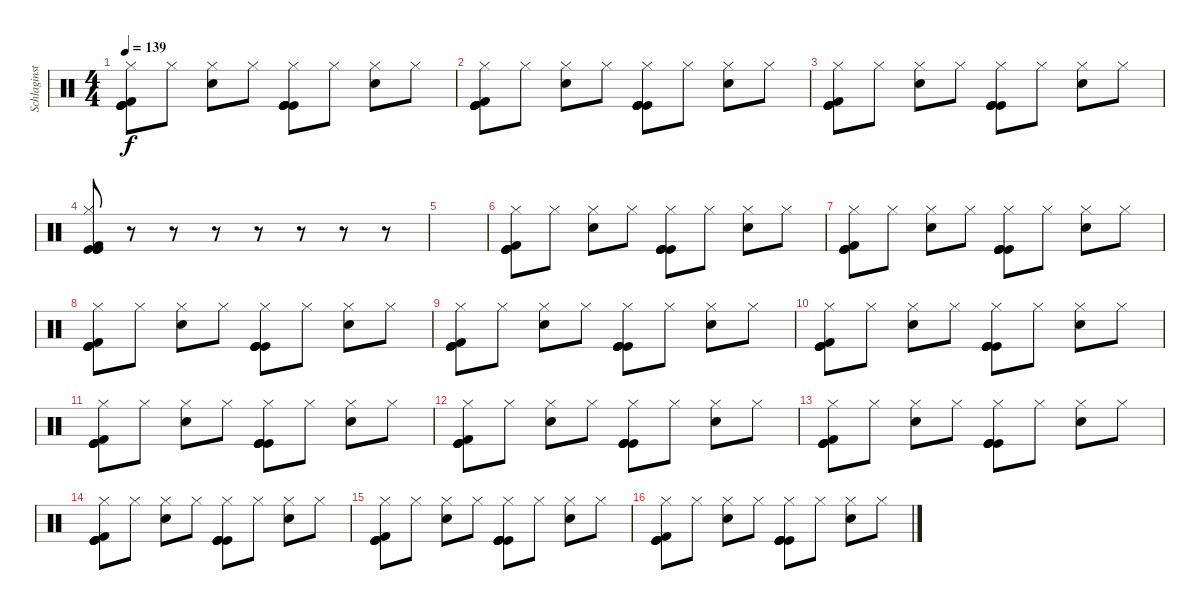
\track ("Schlaginstrumente - Auswahl" "Schlaginst") {instrument percussion}
\staff {score}
\articulation defaults
\ts (4 4)
\tempo 139
\clef neutral
\ks c
("Kick (hit)" "Kick (hit)" "Kick (hit)" "Hi-Hat (closed)" "Kick (hit) 2").8{dy f} "Hi-Hat (closed)".8 ("Hi-Hat (closed)" "Snare (hit) 2").8 "Hi-Hat (closed)".8 ("Kick (hit)" "Kick (hit)" "Kick (hit)" "Hi-Hat (closed)" "Kick (hit)").8 "Hi-Hat (closed)".8 ("Hi-Hat (closed)" "Snare (hit) 2").8 "Hi-Hat (closed)".8 |
("Kick (hit)" "Kick (hit)" "Kick (hit)" "Hi-Hat (closed)" "Kick (hit) 2").8 "Hi-Hat (closed)".8 ("Hi-Hat (closed)" "Snare (hit) 2").8 "Hi-Hat (closed)".8 ("Kick (hit)" "Kick (hit)" "Kick (hit)" "Hi-Hat (closed)" "Kick (hit)").8 "Hi-Hat (closed)".8 ("Hi-Hat (closed)" "Snare (hit) 2").8 "Hi-Hat (closed)".8 |
("Kick (hit)" "Kick (hit)" "Kick (hit)" "Hi-Hat (closed)" "Kick (hit) 2").8 "Hi-Hat (closed)".8 ("Hi-Hat (closed)" "Snare (hit) 2").8 "Hi-Hat (closed)".8 ("Kick (hit)" "Kick (hit)" "Kick (hit)" "Hi-Hat (closed)" "Kick (hit)").8 "Hi-Hat (closed)".8 ("Hi-Hat (closed)" "Snare (hit) 2").8 "Hi-Hat (closed)".8 |
("Kick (hit)" "Kick (hit)" "Kick (hit)" "Hi-Hat (closed)" "Kick (hit) 2").8 r.8 r.8 r.8 r.8 r.8 r.8 r.8 |
|
("Kick (hit)" "Kick (hit)" "Kick (hit)" "Hi-Hat (closed)" "Kick (hit) 2").8 "Hi-Hat (closed)".8 ("Hi-Hat (closed)" "Snare (hit) 2").8 "Hi-Hat (closed)".8 ("Kick (hit)" "Kick (hit)" "Kick (hit)" "Hi-Hat (closed)" "Kick (hit)").8 "Hi-Hat (closed)".8 ("Hi-Hat (closed)" "Snare (hit) 2").8 "Hi-Hat (closed)".8 |
("Kick (hit)" "Kick (hit)" "Kick (hit)" "Hi-Hat (closed)" "Kick (hit) 2").8 "Hi-Hat (closed)".8 ("Hi-Hat (closed)" "Snare (hit) 2").8 "Hi-Hat (closed)".8 ("Kick (hit)" "Kick (hit)" "Kick (hit)" "Hi-Hat (closed)" "Kick (hit)").8 "Hi-Hat (closed)".8 ("Hi-Hat (closed)" "Snare (hit) 2").8 "Hi-Hat (closed)".8 |
("Kick (hit)" "Kick (hit)" "Kick (hit)" "Hi-Hat (closed)" "Kick (hit) 2").8 "Hi-Hat (closed)".8 ("Hi-Hat (closed)" "Snare (hit) 2").8 "Hi-Hat (closed)".8 ("Kick (hit)" "Kick (hit)" "Kick (hit)" "Hi-Hat (closed)" "Kick (hit)").8 "Hi-Hat (closed)".8 ("Hi-Hat (closed)" "Snare (hit) 2").8 "Hi-Hat (closed)".8 |
("Kick (hit)" "Kick (hit)" "Kick (hit)" "Hi-Hat (closed)" "Kick (hit) 2").8 "Hi-Hat (closed)".8 ("Hi-Hat (closed)" "Snare (hit) 2").8 "Hi-Hat (closed)".8 ("Kick (hit)" "Kick (hit)" "Kick (hit)" "Hi-Hat (closed)" "Kick (hit)").8 "Hi-Hat (closed)".8 ("Hi-Hat (closed)" "Snare (hit) 2").8 "Hi-Hat (closed)".8 |
("Kick (hit)" "Kick (hit)" "Kick (hit)" "Hi-Hat (closed)" "Kick (hit) 2").8 "Hi-Hat (closed)".8 ("Hi-Hat (closed)" "Snare (hit) 2").8 "Hi-Hat (closed)".8 ("Kick (hit)" "Kick (hit)" "Kick (hit)" "Hi-Hat (closed)" "Kick (hit)").8 "Hi-Hat (closed)".8 ("Hi-Hat (closed)" "Snare (hit) 2").8 "Hi-Hat (closed)".8 |
("Kick (hit)" "Kick (hit)" "Kick (hit)" "Hi-Hat (closed)" "Kick (hit) 2").8 "Hi-Hat (closed)".8 ("Hi-Hat (closed)" "Snare (hit) 2").8 "Hi-Hat (closed)".8 ("Kick (hit)" "Kick (hit)" "Kick (hit)" "Hi-Hat (closed)" "Kick (hit)").8 "Hi-Hat (closed)".8 ("Hi-Hat (closed)" "Snare (hit) 2").8 "Hi-Hat (closed)".8 |
("Kick (hit)" "Kick (hit)" "Kick (hit)" "Hi-Hat (closed)" "Kick (hit) 2").8 "Hi-Hat (closed)".8 ("Hi-Hat (closed)" "Snare (hit) 2").8 "Hi-Hat (closed)".8 ("Kick (hit)" "Kick (hit)" "Kick (hit)" "Hi-Hat (closed)" "Kick (hit)").8 "Hi-Hat (closed)".8 ("Hi-Hat (closed)" "Snare (hit) 2").8 "Hi-Hat (closed)".8 |
("Kick (hit)" "Kick (hit)" "Kick (hit)" "Hi-Hat (closed)" "Kick (hit) 2").8 "Hi-Hat (closed)".8 ("Hi-Hat (closed)" "Snare (hit) 2").8 "Hi-Hat (closed)".8 ("Kick (hit)" "Kick (hit)" "Kick (hit)" "Hi-Hat (closed)" "Kick (hit)").8 "Hi-Hat (closed)".8 ("Hi-Hat (closed)" "Snare (hit) 2").8 "Hi-Hat (closed)".8 |
("Kick (hit)" "Kick (hit)" "Kick (hit)" "Hi-Hat (closed)" "Kick (hit) 2").8 "Hi-Hat (closed)".8 ("Hi-Hat (closed)" "Snare (hit) 2").8 "Hi-Hat (closed)".8 ("Kick (hit)" "Kick (hit)" "Kick (hit)" "Hi-Hat (closed)" "Kick (hit)").8 "Hi-Hat (closed)".8 ("Hi-Hat (closed)" "Snare (hit) 2").8 "Hi-Hat (closed)".8 |
("Kick (hit)" "Kick (hit)" "Kick (hit)" "Hi-Hat (closed)" "Kick (hit) 2").8 "Hi-Hat (closed)".8 ("Hi-Hat (closed)" "Snare (hit) 2").8 "Hi-Hat (closed)".8 ("Kick (hit)" "Kick (hit)" "Kick (hit)" "Hi-Hat (closed)" "Kick (hit)").8 "Hi-Hat (closed)".8 ("Hi-Hat (closed)" "Snare (hit) 2").8 "Hi-Hat (closed)".8 |
("Kick (hit)" "Kick (hit)" "Kick (hit)" "Hi-Hat (closed)" "Kick (hit) 2").8 "Hi-Hat (closed)".8 ("Hi-Hat (closed)" "Snare (hit) 2").8 "Hi-Hat (closed)".8 ("Kick (hit)" "Kick (hit)" "Kick (hit)" "Hi-Hat (closed)" "Kick (hit)").8 "Hi-Hat (closed)".8 ("Hi-Hat (closed)" "Snare (hit) 2").8 "Hi-Hat (closed)".8
